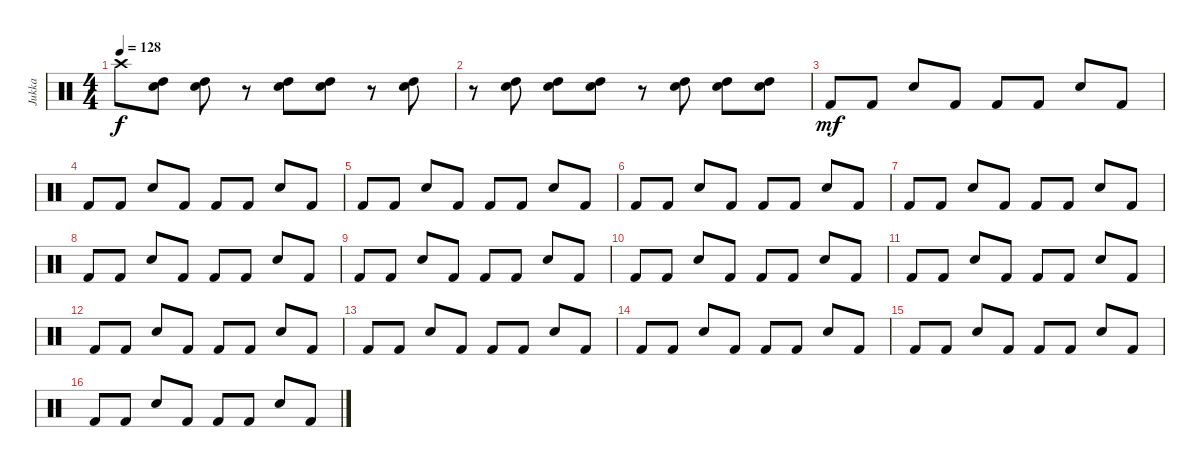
\track ("Jukka" "Jukka") {instrument percussion}
\staff {score}
\articulation defaults
\ts (4 4)
\tempo 128
\clef neutral
\ks c "Crash high (hit)".8{dy f}
("Electric Snare (hit)" "High Tom (hit)").8 ("Electric Snare (hit)" "High Tom (hit)").8 r.8 ("Electric Snare (hit)" "High Tom (hit)").8 ("Electric Snare (hit)" "High Tom (hit)").8 r.8 ("Electric Snare (hit)" "High Tom (hit)").8 |
r.8 ("Electric Snare (hit)" "High Tom (hit)").8 ("Electric Snare (hit)" "High Tom (hit)").8 ("Electric Snare (hit)" "High Tom (hit)").8 r.8 ("Electric Snare (hit)" "High Tom (hit)").8 ("Electric Snare (hit)" "High Tom (hit)").8 ("Electric Snare (hit)" "High Tom (hit)").8 |
"Kick (hit) 2".8{dy mf} "Kick (hit) 2".8 "Electric Snare (hit)".8 "Kick (hit) 2".8 "Kick (hit) 2".8 "Kick (hit) 2".8 "Electric Snare (hit)".8 "Kick (hit) 2".8 |
"Kick (hit) 2".8 "Kick (hit) 2".8 "Electric Snare (hit)".8 "Kick (hit) 2".8 "Kick (hit) 2".8 "Kick (hit) 2".8 "Electric Snare (hit)".8 "Kick (hit) 2".8 |
"Kick (hit) 2".8 "Kick (hit) 2".8 "Electric Snare (hit)".8 "Kick (hit) 2".8 "Kick (hit) 2".8 "Kick (hit) 2".8 "Electric Snare (hit)".8 "Kick (hit) 2".8 |
"Kick (hit) 2".8 "Kick (hit) 2".8 "Electric Snare (hit)".8 "Kick (hit) 2".8 "Kick (hit) 2".8 "Kick (hit) 2".8 "Electric Snare (hit)".8 "Kick (hit) 2".8 |
"Kick (hit) 2".8 "Kick (hit) 2".8 "Electric Snare (hit)".8 "Kick (hit) 2".8 "Kick (hit) 2".8 "Kick (hit) 2".8 "Electric Snare (hit)".8 "Kick (hit) 2".8 |
"Kick (hit) 2".8 "Kick (hit) 2".8 "Electric Snare (hit)".8 "Kick (hit) 2".8 "Kick (hit) 2".8 "Kick (hit) 2".8 "Electric Snare (hit)".8 "Kick (hit) 2".8 |
"Kick (hit) 2".8 "Kick (hit) 2".8 "Electric Snare (hit)".8 "Kick (hit) 2".8 "Kick (hit) 2".8 "Kick (hit) 2".8 "Electric Snare (hit)".8 "Kick (hit) 2".8 |
"Kick (hit) 2".8 "Kick (hit) 2".8 "Electric Snare (hit)".8 "Kick (hit) 2".8 "Kick (hit) 2".8 "Kick (hit) 2".8 "Electric Snare (hit)".8 "Kick (hit) 2".8 |
"Kick (hit) 2".8 "Kick (hit) 2".8 "Electric Snare (hit)".8 "Kick (hit) 2".8 "Kick (hit) 2".8 "Kick (hit) 2".8 "Electric Snare (hit)".8 "Kick (hit) 2".8 |
"Kick (hit) 2".8 "Kick (hit) 2".8 "Electric Snare (hit)".8 "Kick (hit) 2".8 "Kick (hit) 2".8 "Kick (hit) 2".8 "Electric Snare (hit)".8 "Kick (hit) 2".8 |
"Kick (hit) 2".8 "Kick (hit) 2".8 "Electric Snare (hit)".8 "Kick (hit) 2".8 "Kick (hit) 2".8 "Kick (hit) 2".8 "Electric Snare (hit)".8 "Kick (hit) 2".8 |
"Kick (hit) 2".8 "Kick (hit) 2".8 "Electric Snare (hit)".8 "Kick (hit) 2".8 "Kick (hit) 2".8 "Kick (hit) 2".8 "Electric Snare (hit)".8 "Kick (hit) 2".8 |
"Kick (hit) 2".8 "Kick (hit) 2".8 "Electric Snare (hit)".8 "Kick (hit) 2".8 "Kick (hit) 2".8 "Kick (hit) 2".8 "Electric Snare (hit)".8 "Kick (hit) 2".8 |
"Kick (hit) 2".8 "Kick (hit) 2".8 "Electric Snare (hit)".8 "Kick (hit) 2".8 "Kick (hit) 2".8 "Kick (hit) 2".8 "Electric Snare (hit)".8 "Kick (hit) 2".8
